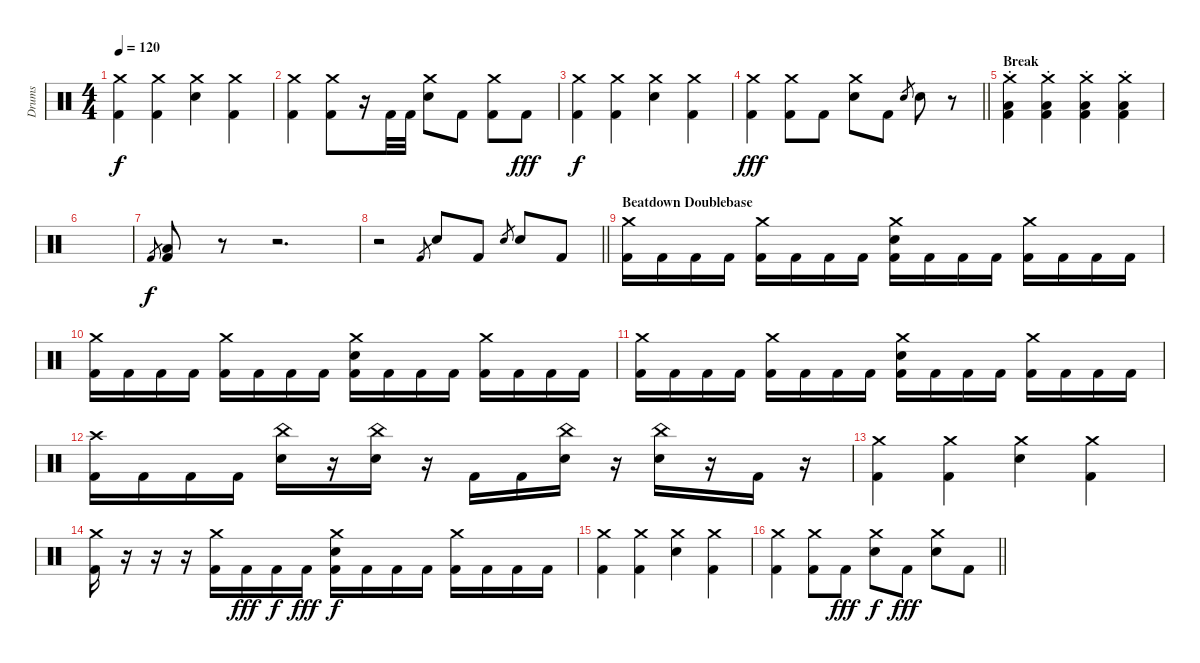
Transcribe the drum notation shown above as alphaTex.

\track ("Drums" "Drums") {instrument percussion}
\staff {score}
\articulation defaults
\ts (4 4)
\tempo 120
\clef neutral
\ks c
("Crash medium (hit)" "Kick (hit) 2").4{dy f} ("Crash medium (hit)" "Kick (hit) 2").4 ("Crash medium (hit)" "Electric Snare (hit)").4 ("Crash medium (hit)" "Kick (hit) 2").4 |
("Crash medium (hit)" "Kick (hit) 2").4 ("Crash medium (hit)" "Kick (hit) 2").8 r.16 "Kick (hit) 2".32 "Kick (hit) 2".32 ("Crash medium (hit)" "Electric Snare (hit)").8 "Kick (hit) 2".8 ("Crash medium (hit)" "Kick (hit) 2").8 "Kick (hit) 2".8{dy fff} |
("Crash medium (hit)" "Kick (hit) 2").4{dy f} ("Crash medium (hit)" "Kick (hit) 2").4 ("Crash medium (hit)" "Electric Snare (hit)").4 ("Crash medium (hit)" "Kick (hit) 2").4 |
\barLineRight lightlight
("Crash medium (hit)" "Kick (hit) 2").4{dy fff} ("Crash medium (hit)" "Kick (hit) 2").8 "Kick (hit) 2".8 ("Crash medium (hit)" "Electric Snare (hit)").8 "Kick (hit) 2".8 "Electric Snare (hit)".8{gr} "Electric Snare (hit)".8 r.8 |
\section ("" "Break")
("Crash medium (hit)"{st} "Low Floor Tom (hit)" "Kick (hit) 2").4 ("Crash medium (hit)"{st} "Low Floor Tom (hit)" "Kick (hit) 2").4 ("Crash medium (hit)"{st} "Low Floor Tom (hit)" "Kick (hit) 2").4 ("Crash medium (hit)"{st} "Low Floor Tom (hit)" "Kick (hit) 2").4 |
|
"Kick (hit) 2".8{gr dy f} ("Low Floor Tom (hit)" "Kick (hit) 2").8 r.8 r.2{d} |
\barLineRight lightlight
r.2 "Kick (hit) 2".8{gr} "Electric Snare (hit)".8 "Kick (hit) 2".8 "Electric Snare (hit)".8{gr} "Electric Snare (hit)".8 "Kick (hit) 2".8 |
\section ("" "Beatdown Doublebase")
("Crash medium (hit)" "Kick (hit) 2").16 "Kick (hit) 2".16 "Kick (hit) 2".16 "Kick (hit) 2".16 ("Crash medium (hit)" "Kick (hit) 2").16 "Kick (hit) 2".16 "Kick (hit) 2".16 "Kick (hit) 2".16 ("Crash medium (hit)" "Electric Snare (hit)" "Kick (hit) 2").16 "Kick (hit) 2".16 "Kick (hit) 2".16 "Kick (hit) 2".16 ("Crash medium (hit)" "Kick (hit) 2").16 "Kick (hit) 2".16 "Kick (hit) 2".16 "Kick (hit) 2".16 |
("Crash medium (hit)" "Kick (hit) 2").16 "Kick (hit) 2".16 "Kick (hit) 2".16 "Kick (hit) 2".16 ("Crash medium (hit)" "Kick (hit) 2").16 "Kick (hit) 2".16 "Kick (hit) 2".16 "Kick (hit) 2".16 ("Crash medium (hit)" "Electric Snare (hit)" "Kick (hit) 2").16 "Kick (hit) 2".16 "Kick (hit) 2".16 "Kick (hit) 2".16 ("Crash medium (hit)" "Kick (hit) 2").16 "Kick (hit) 2".16 "Kick (hit) 2".16 "Kick (hit) 2".16 |
("Crash medium (hit)" "Kick (hit) 2").16 "Kick (hit) 2".16 "Kick (hit) 2".16 "Kick (hit) 2".16 ("Crash medium (hit)" "Kick (hit) 2").16 "Kick (hit) 2".16 "Kick (hit) 2".16 "Kick (hit) 2".16 ("Crash medium (hit)" "Electric Snare (hit)" "Kick (hit) 2").16 "Kick (hit) 2".16 "Kick (hit) 2".16 "Kick (hit) 2".16 ("Crash medium (hit)" "Kick (hit) 2").16 "Kick (hit) 2".16 "Kick (hit) 2".16 "Kick (hit) 2".16 |
("Crash high (hit)" "Kick (hit) 2").16 "Kick (hit) 2".16 "Kick (hit) 2".16 "Kick (hit) 2".16 ("China (hit)" "Electric Snare (hit)").16 r.16 ("China (hit)" "Electric Snare (hit)").16 r.16 "Kick (hit) 2".16 "Kick (hit) 2".16 ("China (hit)" "Electric Snare (hit)").16 r.16 ("China (hit)" "Electric Snare (hit)").16 r.16 "Kick (hit) 2".16 r.16 |
("Crash medium (hit)" "Kick (hit) 2").4 ("Crash medium (hit)" "Kick (hit) 2").4 ("Crash medium (hit)" "Electric Snare (hit)").4 ("Crash medium (hit)" "Kick (hit) 2").4 |
("Crash medium (hit)" "Kick (hit) 2").16 r.16 r.16 r.16 ("Crash medium (hit)" "Kick (hit) 2").16 "Kick (hit) 2".16{dy fff} "Kick (hit) 2".16{dy f} "Kick (hit) 2".16{dy fff} ("Crash medium (hit)" "Electric Snare (hit)" "Kick (hit) 2").16{dy f} "Kick (hit) 2".16 "Kick (hit) 2".16 "Kick (hit) 2".16 ("Crash medium (hit)" "Kick (hit) 2").16 "Kick (hit) 2".16 "Kick (hit) 2".16 "Kick (hit) 2".16 |
("Crash medium (hit)" "Kick (hit) 2").4 ("Crash medium (hit)" "Kick (hit) 2").4 ("Crash medium (hit)" "Electric Snare (hit)").4 ("Crash medium (hit)" "Kick (hit) 2").4 |
\barLineRight lightlight
("Crash medium (hit)" "Kick (hit) 2").4 ("Crash medium (hit)" "Kick (hit) 2").8 "Kick (hit) 2".8{dy fff} ("Crash medium (hit)" "Electric Snare (hit)").8{dy f} "Kick (hit) 2".8{dy fff} ("Crash medium (hit)" "Electric Snare (hit)").8 "Kick (hit) 2".8
